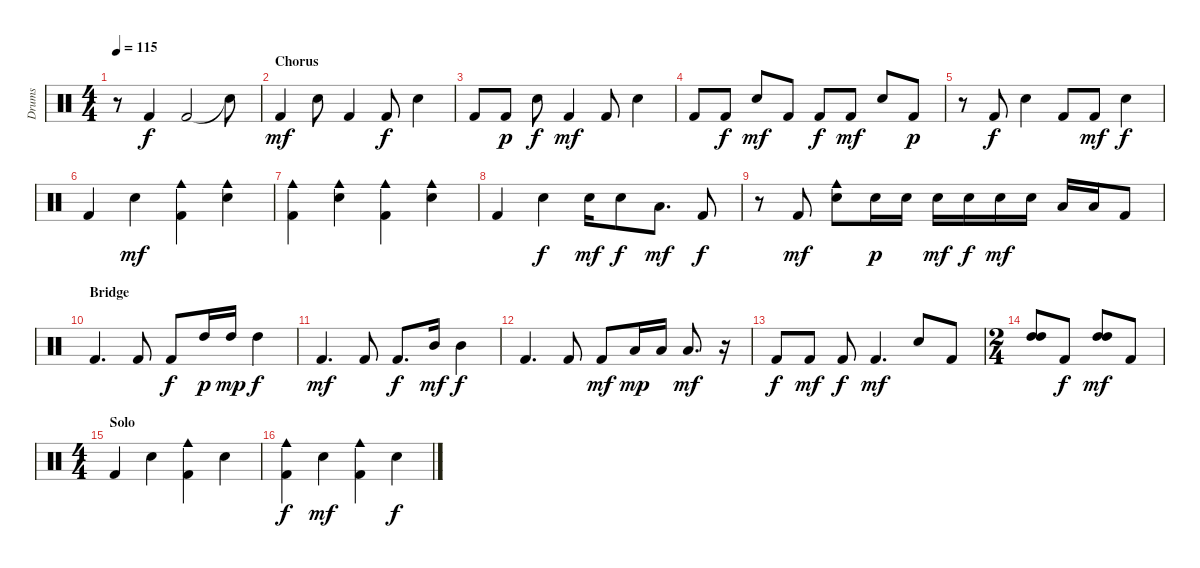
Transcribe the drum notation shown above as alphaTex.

\track ("Drums" "Drums") {instrument percussion}
\staff {score}
\articulation defaults
\ts (4 4)
\tempo 115
\clef neutral
\ks c
r.8{dy mf} "Kick (hit) 2".4{dy f} "Kick (hit) 2".2 "Snare (hit)"{t}.8 |
\section ("" "Chorus")
"Kick (hit) 2".4{dy mf} "Electric Snare (hit)".8 "Kick (hit) 2".4 "Kick (hit) 2".8{dy f} "Electric Snare (hit)".4 |
"Kick (hit) 2".8 "Kick (hit) 2".8{dy p} "Electric Snare (hit)".8{dy f} "Kick (hit) 2".4{dy mf} "Kick (hit) 2".8 "Electric Snare (hit)".4 |
"Kick (hit) 2".8 "Kick (hit) 2".8{dy f} "Electric Snare (hit)".8{dy mf} "Kick (hit) 2".8 "Kick (hit) 2".8{dy f} "Kick (hit) 2".8{dy mf} "Electric Snare (hit)".8 "Kick (hit) 2".8{dy p} |
r.8 "Kick (hit) 2".8{dy f} "Electric Snare (hit)".4 "Kick (hit) 2".8 "Kick (hit) 2".8{dy mf} "Electric Snare (hit)".4{dy f} |
"Kick (hit) 2".4 "Electric Snare (hit)".4{dy mf} ("Cowbell medium (hit)" "Kick (hit) 2").4 ("Cowbell medium (hit)" "Electric Snare (hit)").4 |
("Cowbell medium (hit)" "Kick (hit) 2").4 ("Cowbell medium (hit)" "Electric Snare (hit)").4 ("Cowbell medium (hit)" "Kick (hit) 2").4 ("Cowbell medium (hit)" "Electric Snare (hit)").4 |
"Kick (hit) 2".4 "Electric Snare (hit)".4{dy f} "Electric Snare (hit)".16{dy mf} "Electric Snare (hit)".8{dy f} "Low Tom (hit)".8{d dy mf} "Kick (hit) 2".8{dy f} |
r.8 "Kick (hit) 2".8{dy mf} ("Cowbell medium (hit)" "Electric Snare (hit)").8 "Electric Snare (hit)".16{dy p} "Electric Snare (hit)".16 "Electric Snare (hit)".16{dy mf} "Electric Snare (hit)".16{dy f} "Electric Snare (hit)".16{dy mf} "Electric Snare (hit)".16 "Low Tom (hit)".16 "Low Tom (hit)".16 "Kick (hit) 2".8 |
\section ("" "Bridge")
"Kick (hit) 2".4{d} "Kick (hit) 2".8 "Kick (hit) 2".8{dy f} "High Tom (hit)".16{dy p} "High Tom (hit)".16{dy mp} "High Tom (hit)".4{dy f} |
"Kick (hit) 2".4{d dy mf} "Kick (hit) 2".8 "Kick (hit) 2".8{d dy f} "Mid Tom (hit)".16{dy mf} "Mid Tom (hit)".4{dy f} |
"Kick (hit) 2".4{d} "Kick (hit) 2".8 "Kick (hit) 2".8{dy mf} "Low Tom (hit)".16{dy mp} "Low Tom (hit)".16 "Low Tom (hit)".8{d dy mf} r.16 |
"Kick (hit) 2".8{dy f} "Kick (hit) 2".8{dy mf} "Kick (hit) 2".8{dy f} "Kick (hit) 2".4{d dy mf} "Electric Snare (hit)".8 "Kick (hit) 2".8 |
\ts (2 4)
("High Tom (hit)" "High Tom (hit)").8 "Kick (hit) 2".8{dy f} ("High Tom (hit)" "High Tom (hit)").8{dy mf} "Kick (hit) 2".8 |
\ts (4 4)
\section ("" "Solo")
"Kick (hit) 2".4 "Electric Snare (hit)".4 ("Cowbell medium (hit)" "Kick (hit) 2").4 "Electric Snare (hit)".4 |
("Cowbell medium (hit)" "Kick (hit) 2").4{dy f} "Electric Snare (hit)".4{dy mf} ("Cowbell medium (hit)" "Kick (hit) 2").4 "Electric Snare (hit)".4{dy f}
